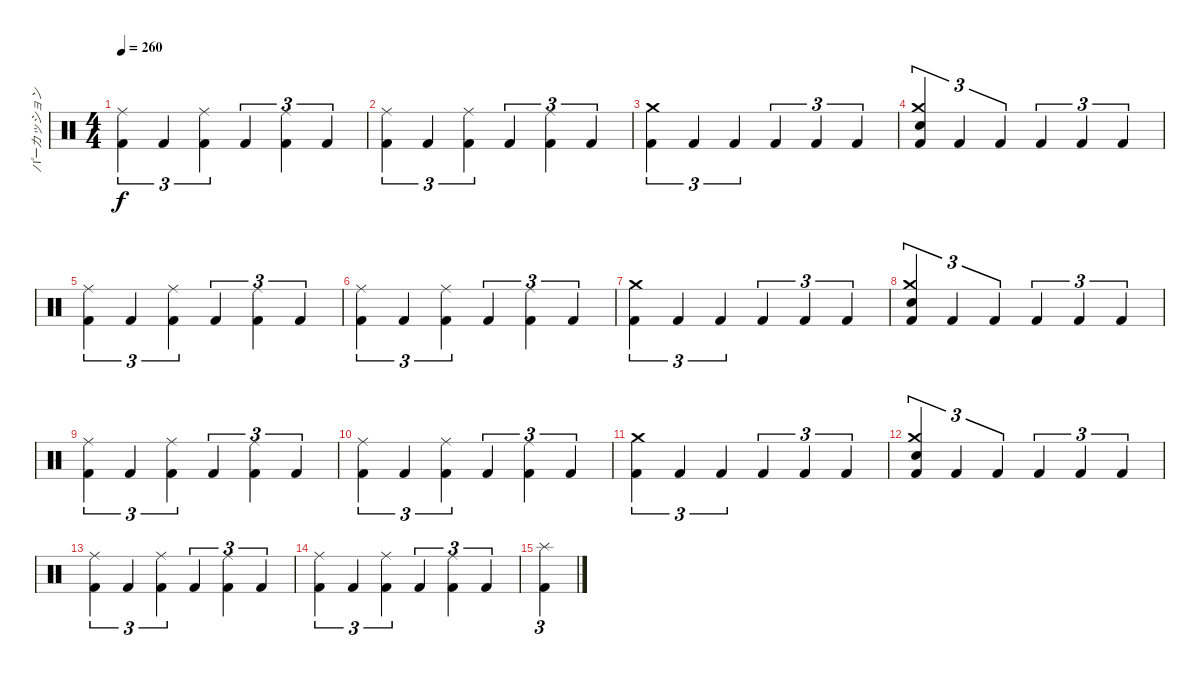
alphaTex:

\track ("パーカッション" "パーカッション") {instrument percussion}
\staff {score}
\articulation defaults
\ts (4 4)
\tempo 260
\clef neutral
\ks c
("Ride (middle)" "Kick (hit) 2").4{tu (3 2) dy f} "Kick (hit) 2".4{tu (3 2)} ("Ride (middle)" "Kick (hit) 2").4{tu (3 2)} "Kick (hit) 2".4{tu (3 2)} ("Ride (middle)" "Kick (hit) 2").4{tu (3 2)} "Kick (hit) 2".4{tu (3 2)} |
("Ride (middle)" "Kick (hit) 2").4{tu (3 2)} "Kick (hit) 2".4{tu (3 2)} ("Ride (middle)" "Kick (hit) 2").4{tu (3 2)} "Kick (hit) 2".4{tu (3 2)} ("Ride (middle)" "Kick (hit) 2").4{tu (3 2)} "Kick (hit) 2".4{tu (3 2)} |
("Crash medium (hit)" "Kick (hit) 2").4{tu (3 2)} "Kick (hit) 2".4{tu (3 2)} "Kick (hit) 2".4{tu (3 2)} "Kick (hit) 2".4{tu (3 2)} "Kick (hit) 2".4{tu (3 2)} "Kick (hit) 2".4{tu (3 2)} |
("Crash medium (hit)" "Snare (hit) 2" "Kick (hit) 2").4{tu (3 2)} "Kick (hit) 2".4{tu (3 2)} "Kick (hit) 2".4{tu (3 2)} "Kick (hit) 2".4{tu (3 2)} "Kick (hit) 2".4{tu (3 2)} "Kick (hit) 2".4{tu (3 2)} |
("Ride (middle)" "Kick (hit) 2").4{tu (3 2)} "Kick (hit) 2".4{tu (3 2)} ("Ride (middle)" "Kick (hit) 2").4{tu (3 2)} "Kick (hit) 2".4{tu (3 2)} ("Ride (middle)" "Kick (hit) 2").4{tu (3 2)} "Kick (hit) 2".4{tu (3 2)} |
("Ride (middle)" "Kick (hit) 2").4{tu (3 2)} "Kick (hit) 2".4{tu (3 2)} ("Ride (middle)" "Kick (hit) 2").4{tu (3 2)} "Kick (hit) 2".4{tu (3 2)} ("Ride (middle)" "Kick (hit) 2").4{tu (3 2)} "Kick (hit) 2".4{tu (3 2)} |
("Crash medium (hit)" "Kick (hit) 2").4{tu (3 2)} "Kick (hit) 2".4{tu (3 2)} "Kick (hit) 2".4{tu (3 2)} "Kick (hit) 2".4{tu (3 2)} "Kick (hit) 2".4{tu (3 2)} "Kick (hit) 2".4{tu (3 2)} |
("Crash medium (hit)" "Snare (hit) 2" "Kick (hit) 2").4{tu (3 2)} "Kick (hit) 2".4{tu (3 2)} "Kick (hit) 2".4{tu (3 2)} "Kick (hit) 2".4{tu (3 2)} "Kick (hit) 2".4{tu (3 2)} "Kick (hit) 2".4{tu (3 2)} |
("Ride (middle)" "Kick (hit) 2").4{tu (3 2)} "Kick (hit) 2".4{tu (3 2)} ("Ride (middle)" "Kick (hit) 2").4{tu (3 2)} "Kick (hit) 2".4{tu (3 2)} ("Ride (middle)" "Kick (hit) 2").4{tu (3 2)} "Kick (hit) 2".4{tu (3 2)} |
("Ride (middle)" "Kick (hit) 2").4{tu (3 2)} "Kick (hit) 2".4{tu (3 2)} ("Ride (middle)" "Kick (hit) 2").4{tu (3 2)} "Kick (hit) 2".4{tu (3 2)} ("Ride (middle)" "Kick (hit) 2").4{tu (3 2)} "Kick (hit) 2".4{tu (3 2)} |
("Crash medium (hit)" "Kick (hit) 2").4{tu (3 2)} "Kick (hit) 2".4{tu (3 2)} "Kick (hit) 2".4{tu (3 2)} "Kick (hit) 2".4{tu (3 2)} "Kick (hit) 2".4{tu (3 2)} "Kick (hit) 2".4{tu (3 2)} |
("Crash medium (hit)" "Snare (hit) 2" "Kick (hit) 2").4{tu (3 2)} "Kick (hit) 2".4{tu (3 2)} "Kick (hit) 2".4{tu (3 2)} "Kick (hit) 2".4{tu (3 2)} "Kick (hit) 2".4{tu (3 2)} "Kick (hit) 2".4{tu (3 2)} |
("Ride (middle)" "Kick (hit) 2").4{tu (3 2)} "Kick (hit) 2".4{tu (3 2)} ("Ride (middle)" "Kick (hit) 2").4{tu (3 2)} "Kick (hit) 2".4{tu (3 2)} ("Ride (middle)" "Kick (hit) 2").4{tu (3 2)} "Kick (hit) 2".4{tu (3 2)} |
("Ride (middle)" "Kick (hit) 2").4{tu (3 2)} "Kick (hit) 2".4{tu (3 2)} ("Ride (middle)" "Kick (hit) 2").4{tu (3 2)} "Kick (hit) 2".4{tu (3 2)} ("Ride (middle)" "Kick (hit) 2").4{tu (3 2)} "Kick (hit) 2".4{tu (3 2)} |
("Splash (hit)" "Kick (hit) 2").4{tu (3 2)}
